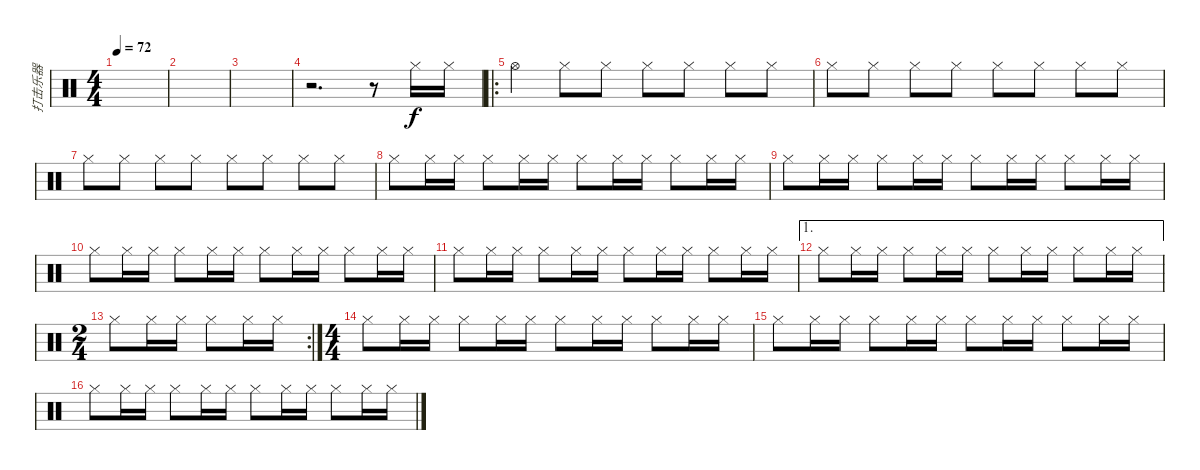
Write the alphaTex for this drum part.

\track ("打击乐器" "打击乐器") {instrument percussion}
\staff {score}
\articulation defaults
\ts (4 4)
\tempo 72
\clef neutral
\ks c
|
|
|
r.2{d} r.8 "Hi-Hat (closed)".16 "Hi-Hat (closed)".16{dy f} |
\ro "Hi-Hat (open)".4 "Hi-Hat (closed)".8 "Hi-Hat (closed)".8 "Hi-Hat (closed)".8 "Hi-Hat (closed)".8 "Hi-Hat (closed)".8 "Hi-Hat (closed)".8
|
"Hi-Hat (closed)".8 "Hi-Hat (closed)".8 "Hi-Hat (closed)".8 "Hi-Hat (closed)".8 "Hi-Hat (closed)".8 "Hi-Hat (closed)".8 "Hi-Hat (closed)".8 "Hi-Hat (closed)".8 |
"Hi-Hat (closed)".8 "Hi-Hat (closed)".8 "Hi-Hat (closed)".8 "Hi-Hat (closed)".8 "Hi-Hat (closed)".8 "Hi-Hat (closed)".8 "Hi-Hat (closed)".8 "Hi-Hat (closed)".8 |
"Hi-Hat (closed)".8 "Hi-Hat (closed)".16 "Hi-Hat (closed)".16 "Hi-Hat (closed)".8 "Hi-Hat (closed)".16 "Hi-Hat (closed)".16 "Hi-Hat (closed)".8 "Hi-Hat (closed)".16 "Hi-Hat (closed)".16 "Hi-Hat (closed)".8 "Hi-Hat (closed)".16 "Hi-Hat (closed)".16 |
"Hi-Hat (closed)".8 "Hi-Hat (closed)".16 "Hi-Hat (closed)".16 "Hi-Hat (closed)".8 "Hi-Hat (closed)".16 "Hi-Hat (closed)".16 "Hi-Hat (closed)".8 "Hi-Hat (closed)".16 "Hi-Hat (closed)".16 "Hi-Hat (closed)".8 "Hi-Hat (closed)".16 "Hi-Hat (closed)".16 |
"Hi-Hat (closed)".8 "Hi-Hat (closed)".16 "Hi-Hat (closed)".16 "Hi-Hat (closed)".8 "Hi-Hat (closed)".16 "Hi-Hat (closed)".16 "Hi-Hat (closed)".8 "Hi-Hat (closed)".16 "Hi-Hat (closed)".16 "Hi-Hat (closed)".8 "Hi-Hat (closed)".16 "Hi-Hat (closed)".16 |
"Hi-Hat (closed)".8 "Hi-Hat (closed)".16 "Hi-Hat (closed)".16 "Hi-Hat (closed)".8 "Hi-Hat (closed)".16 "Hi-Hat (closed)".16 "Hi-Hat (closed)".8 "Hi-Hat (closed)".16 "Hi-Hat (closed)".16 "Hi-Hat (closed)".8 "Hi-Hat (closed)".16 "Hi-Hat (closed)".16 |
\ae 1 "Hi-Hat (closed)".8 "Hi-Hat (closed)".16 "Hi-Hat (closed)".16 "Hi-Hat (closed)".8 "Hi-Hat (closed)".16 "Hi-Hat (closed)".16 "Hi-Hat (closed)".8 "Hi-Hat (closed)".16 "Hi-Hat (closed)".16 "Hi-Hat (closed)".8 "Hi-Hat (closed)".16 "Hi-Hat (closed)".16
|
\rc 2
\ts (2 4)
"Hi-Hat (closed)".8 "Hi-Hat (closed)".16 "Hi-Hat (closed)".16 "Hi-Hat (closed)".8 "Hi-Hat (closed)".16 "Hi-Hat (closed)".16 |
\ts (4 4)
"Hi-Hat (closed)".8 "Hi-Hat (closed)".16 "Hi-Hat (closed)".16 "Hi-Hat (closed)".8 "Hi-Hat (closed)".16 "Hi-Hat (closed)".16 "Hi-Hat (closed)".8 "Hi-Hat (closed)".16 "Hi-Hat (closed)".16 "Hi-Hat (closed)".8 "Hi-Hat (closed)".16 "Hi-Hat (closed)".16 |
"Hi-Hat (closed)".8 "Hi-Hat (closed)".16 "Hi-Hat (closed)".16 "Hi-Hat (closed)".8 "Hi-Hat (closed)".16 "Hi-Hat (closed)".16 "Hi-Hat (closed)".8 "Hi-Hat (closed)".16 "Hi-Hat (closed)".16 "Hi-Hat (closed)".8 "Hi-Hat (closed)".16 "Hi-Hat (closed)".16 |
"Hi-Hat (closed)".8 "Hi-Hat (closed)".16 "Hi-Hat (closed)".16 "Hi-Hat (closed)".8 "Hi-Hat (closed)".16 "Hi-Hat (closed)".16 "Hi-Hat (closed)".8 "Hi-Hat (closed)".16 "Hi-Hat (closed)".16 "Hi-Hat (closed)".8 "Hi-Hat (closed)".16 "Hi-Hat (closed)".16
